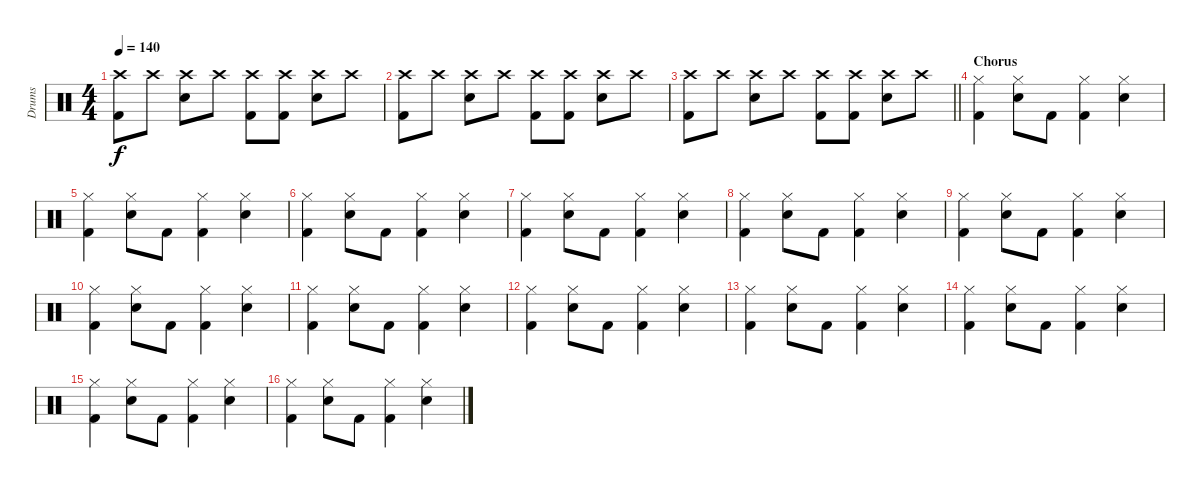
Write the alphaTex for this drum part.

\track ("Drums" "Drums") {instrument percussion}
\staff {score}
\articulation defaults
\ts (4 4)
\tempo 140
\clef neutral
\ks c
("Crash high (hit)" "Kick (hit) 2").8{dy f} "Crash high (hit)".8 ("Crash high (hit)" "Electric Snare (hit)").8 "Crash high (hit)".8 ("Crash high (hit)" "Kick (hit) 2").8 ("Crash high (hit)" "Kick (hit) 2").8 ("Crash high (hit)" "Electric Snare (hit)").8 "Crash high (hit)".8 |
("Crash high (hit)" "Kick (hit) 2").8 "Crash high (hit)".8 ("Crash high (hit)" "Electric Snare (hit)").8 "Crash high (hit)".8 ("Crash high (hit)" "Kick (hit) 2").8 ("Crash high (hit)" "Kick (hit) 2").8 ("Crash high (hit)" "Electric Snare (hit)").8 "Crash high (hit)".8 |
\barLineRight lightlight
("Crash high (hit)" "Kick (hit) 2").8 "Crash high (hit)".8 ("Crash high (hit)" "Electric Snare (hit)").8 "Crash high (hit)".8 ("Crash high (hit)" "Kick (hit) 2").8 ("Crash high (hit)" "Kick (hit) 2").8 ("Crash high (hit)" "Electric Snare (hit)").8 "Crash high (hit)".8 |
\section ("" "Chorus")
("Hi-Hat (closed)" "Kick (hit) 2").4 ("Hi-Hat (closed)" "Electric Snare (hit)").8 "Kick (hit) 2".8 ("Hi-Hat (closed)" "Kick (hit) 2").4 ("Hi-Hat (closed)" "Electric Snare (hit)").4 |
("Hi-Hat (closed)" "Kick (hit) 2").4 ("Hi-Hat (closed)" "Electric Snare (hit)").8 "Kick (hit) 2".8 ("Hi-Hat (closed)" "Kick (hit) 2").4 ("Hi-Hat (closed)" "Electric Snare (hit)").4 |
("Hi-Hat (closed)" "Kick (hit) 2").4 ("Hi-Hat (closed)" "Electric Snare (hit)").8 "Kick (hit) 2".8 ("Hi-Hat (closed)" "Kick (hit) 2").4 ("Hi-Hat (closed)" "Electric Snare (hit)").4 |
("Hi-Hat (closed)" "Kick (hit) 2").4 ("Hi-Hat (closed)" "Electric Snare (hit)").8 "Kick (hit) 2".8 ("Hi-Hat (closed)" "Kick (hit) 2").4 ("Hi-Hat (closed)" "Electric Snare (hit)").4 |
("Hi-Hat (closed)" "Kick (hit) 2").4 ("Hi-Hat (closed)" "Electric Snare (hit)").8 "Kick (hit) 2".8 ("Hi-Hat (closed)" "Kick (hit) 2").4 ("Hi-Hat (closed)" "Electric Snare (hit)").4 |
("Hi-Hat (closed)" "Kick (hit) 2").4 ("Hi-Hat (closed)" "Electric Snare (hit)").8 "Kick (hit) 2".8 ("Hi-Hat (closed)" "Kick (hit) 2").4 ("Hi-Hat (closed)" "Electric Snare (hit)").4 |
("Hi-Hat (closed)" "Kick (hit) 2").4 ("Hi-Hat (closed)" "Electric Snare (hit)").8 "Kick (hit) 2".8 ("Hi-Hat (closed)" "Kick (hit) 2").4 ("Hi-Hat (closed)" "Electric Snare (hit)").4 |
("Hi-Hat (closed)" "Kick (hit) 2").4 ("Hi-Hat (closed)" "Electric Snare (hit)").8 "Kick (hit) 2".8 ("Hi-Hat (closed)" "Kick (hit) 2").4 ("Hi-Hat (closed)" "Electric Snare (hit)").4 |
("Hi-Hat (closed)" "Kick (hit) 2").4 ("Hi-Hat (closed)" "Electric Snare (hit)").8 "Kick (hit) 2".8 ("Hi-Hat (closed)" "Kick (hit) 2").4 ("Hi-Hat (closed)" "Electric Snare (hit)").4 |
("Hi-Hat (closed)" "Kick (hit) 2").4 ("Hi-Hat (closed)" "Electric Snare (hit)").8 "Kick (hit) 2".8 ("Hi-Hat (closed)" "Kick (hit) 2").4 ("Hi-Hat (closed)" "Electric Snare (hit)").4 |
("Hi-Hat (closed)" "Kick (hit) 2").4 ("Hi-Hat (closed)" "Electric Snare (hit)").8 "Kick (hit) 2".8 ("Hi-Hat (closed)" "Kick (hit) 2").4 ("Hi-Hat (closed)" "Electric Snare (hit)").4 |
("Hi-Hat (closed)" "Kick (hit) 2").4 ("Hi-Hat (closed)" "Electric Snare (hit)").8 "Kick (hit) 2".8 ("Hi-Hat (closed)" "Kick (hit) 2").4 ("Hi-Hat (closed)" "Electric Snare (hit)").4 |
("Hi-Hat (closed)" "Kick (hit) 2").4 ("Hi-Hat (closed)" "Electric Snare (hit)").8 "Kick (hit) 2".8 ("Hi-Hat (closed)" "Kick (hit) 2").4 ("Hi-Hat (closed)" "Electric Snare (hit)").4
